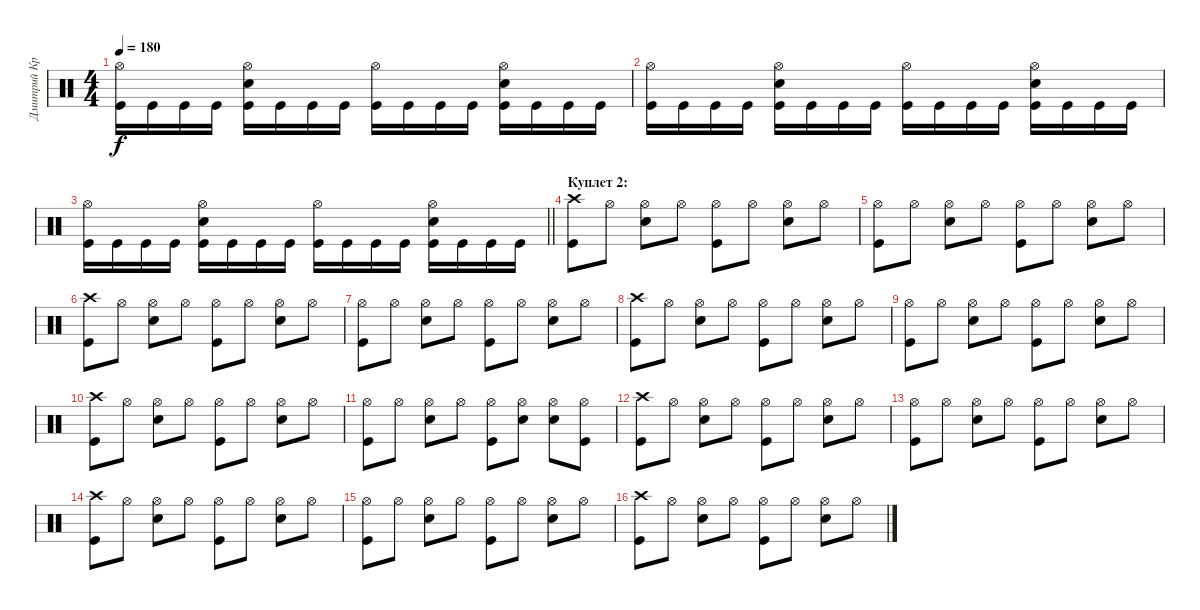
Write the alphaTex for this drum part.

\track ("Дмитрий Кривенков" "Дмитрий Кр") {instrument percussion}
\staff {score}
\articulation defaults
\ts (4 4)
\tempo 180
\clef neutral
\ks c
("Hi-Hat (open)" "Kick (hit)").16{dy f} "Kick (hit)".16 "Kick (hit)".16 "Kick (hit)".16 ("Hi-Hat (open)" "Electric Snare (hit)" "Kick (hit)").16 "Kick (hit)".16 "Kick (hit)".16 "Kick (hit)".16 ("Hi-Hat (open)" "Kick (hit)").16 "Kick (hit)".16 "Kick (hit)".16 "Kick (hit)".16 ("Hi-Hat (open)" "Electric Snare (hit)" "Kick (hit)").16 "Kick (hit)".16 "Kick (hit)".16 "Kick (hit)".16 |
("Hi-Hat (open)" "Kick (hit)").16 "Kick (hit)".16 "Kick (hit)".16 "Kick (hit)".16 ("Hi-Hat (open)" "Electric Snare (hit)" "Kick (hit)").16 "Kick (hit)".16 "Kick (hit)".16 "Kick (hit)".16 ("Hi-Hat (open)" "Kick (hit)").16 "Kick (hit)".16 "Kick (hit)".16 "Kick (hit)".16 ("Hi-Hat (open)" "Electric Snare (hit)" "Kick (hit)").16 "Kick (hit)".16 "Kick (hit)".16 "Kick (hit)".16 |
\barLineRight lightlight
("Hi-Hat (open)" "Kick (hit)").16 "Kick (hit)".16 "Kick (hit)".16 "Kick (hit)".16 ("Kick (hit)" "Electric Snare (hit)" "Hi-Hat (open)").16 "Kick (hit)".16 "Kick (hit)".16 "Kick (hit)".16 ("Kick (hit)" "Hi-Hat (open)").16 "Kick (hit)".16 "Kick (hit)".16 "Kick (hit)".16 ("Kick (hit)" "Electric Snare (hit)" "Hi-Hat (open)").16 "Kick (hit)".16 "Kick (hit)".16 "Kick (hit)".16 |
\section ("" "Куплет 2:")
("Crash high (hit)" "Kick (hit)").8 "Hi-Hat (open)".8 ("Hi-Hat (open)" "Electric Snare (hit)").8 "Hi-Hat (open)".8 ("Hi-Hat (open)" "Kick (hit)").8 "Hi-Hat (open)".8 ("Hi-Hat (open)" "Electric Snare (hit)").8 "Hi-Hat (open)".8 |
("Hi-Hat (open)" "Kick (hit)").8 "Hi-Hat (open)".8 ("Hi-Hat (open)" "Electric Snare (hit)").8 "Hi-Hat (open)".8 ("Hi-Hat (open)" "Kick (hit)").8 "Hi-Hat (open)".8 ("Hi-Hat (open)" "Electric Snare (hit)").8 "Hi-Hat (open)".8 |
("Crash high (hit)" "Kick (hit)").8 "Hi-Hat (open)".8 ("Electric Snare (hit)" "Hi-Hat (open)").8 "Hi-Hat (open)".8 ("Kick (hit)" "Hi-Hat (open)").8 "Hi-Hat (open)".8 ("Electric Snare (hit)" "Hi-Hat (open)").8 "Hi-Hat (open)".8 |
("Kick (hit)" "Hi-Hat (open)").8 "Hi-Hat (open)".8 ("Electric Snare (hit)" "Hi-Hat (open)").8 "Hi-Hat (open)".8 ("Kick (hit)" "Hi-Hat (open)").8 "Hi-Hat (open)".8 ("Electric Snare (hit)" "Hi-Hat (open)").8 "Hi-Hat (open)".8 |
("Kick (hit)" "Crash high (hit)").8 "Hi-Hat (open)".8 ("Electric Snare (hit)" "Hi-Hat (open)").8 "Hi-Hat (open)".8 ("Kick (hit)" "Hi-Hat (open)").8 "Hi-Hat (open)".8 ("Electric Snare (hit)" "Hi-Hat (open)").8 "Hi-Hat (open)".8 |
("Kick (hit)" "Hi-Hat (open)").8 "Hi-Hat (open)".8 ("Electric Snare (hit)" "Hi-Hat (open)").8 "Hi-Hat (open)".8 ("Kick (hit)" "Hi-Hat (open)").8 "Hi-Hat (open)".8 ("Electric Snare (hit)" "Hi-Hat (open)").8 "Hi-Hat (open)".8 |
("Kick (hit)" "Crash high (hit)").8 "Hi-Hat (open)".8 ("Electric Snare (hit)" "Hi-Hat (open)").8 "Hi-Hat (open)".8 ("Kick (hit)" "Hi-Hat (open)").8 "Hi-Hat (open)".8 ("Electric Snare (hit)" "Hi-Hat (open)").8 "Hi-Hat (open)".8 |
("Kick (hit)" "Hi-Hat (open)").8 "Hi-Hat (open)".8 ("Electric Snare (hit)" "Hi-Hat (open)").8 "Hi-Hat (open)".8 ("Kick (hit)" "Hi-Hat (open)").8 ("Electric Snare (hit)" "Hi-Hat (open)").8 ("Electric Snare (hit)" "Hi-Hat (open)").8 ("Kick (hit)" "Hi-Hat (open)").8 |
("Kick (hit)" "Crash high (hit)").8 "Hi-Hat (open)".8 ("Hi-Hat (open)" "Electric Snare (hit)").8 "Hi-Hat (open)".8 ("Hi-Hat (open)" "Kick (hit)").8 "Hi-Hat (open)".8 ("Hi-Hat (open)" "Electric Snare (hit)").8 "Hi-Hat (open)".8 |
("Hi-Hat (open)" "Kick (hit)").8 "Hi-Hat (open)".8 ("Hi-Hat (open)" "Electric Snare (hit)").8 "Hi-Hat (open)".8 ("Hi-Hat (open)" "Kick (hit)").8 "Hi-Hat (open)".8 ("Hi-Hat (open)" "Electric Snare (hit)").8 "Hi-Hat (open)".8 |
("Crash high (hit)" "Kick (hit)").8 "Hi-Hat (open)".8 ("Hi-Hat (open)" "Electric Snare (hit)").8 "Hi-Hat (open)".8 ("Hi-Hat (open)" "Kick (hit)").8 "Hi-Hat (open)".8 ("Electric Snare (hit)" "Hi-Hat (open)").8 "Hi-Hat (open)".8 |
("Kick (hit)" "Hi-Hat (open)").8 "Hi-Hat (open)".8 ("Electric Snare (hit)" "Hi-Hat (open)").8 "Hi-Hat (open)".8 ("Kick (hit)" "Hi-Hat (open)").8 "Hi-Hat (open)".8 ("Electric Snare (hit)" "Hi-Hat (open)").8 "Hi-Hat (open)".8 |
("Kick (hit)" "Crash high (hit)").8 "Hi-Hat (open)".8 ("Electric Snare (hit)" "Hi-Hat (open)").8 "Hi-Hat (open)".8 ("Kick (hit)" "Hi-Hat (open)").8 "Hi-Hat (open)".8 ("Electric Snare (hit)" "Hi-Hat (open)").8 "Hi-Hat (open)".8
